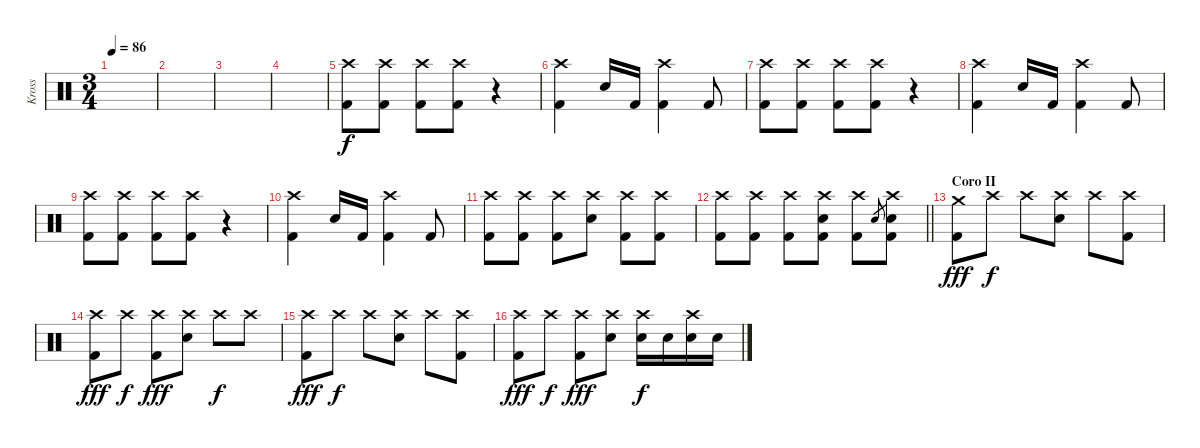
\track ("Kross" "Kross") {instrument percussion}
\staff {score}
\articulation defaults
\ts (3 4)
\tempo 86
\clef neutral
\ks c
|
|
|
|
("Crash high (hit)" "Kick (hit) 2").8 ("Crash high (hit)" "Kick (hit) 2").8 ("Crash high (hit)" "Kick (hit) 2").8 ("Crash high (hit)" "Kick (hit) 2").8 r.4 |
("Crash high (hit)" "Kick (hit) 2").4 "Electric Snare (hit)".16 "Kick (hit) 2".16 ("Crash high (hit)" "Kick (hit) 2").4 "Kick (hit) 2".8 |
("Crash high (hit)" "Kick (hit) 2").8 ("Crash high (hit)" "Kick (hit) 2").8 ("Crash high (hit)" "Kick (hit) 2").8 ("Crash high (hit)" "Kick (hit) 2").8 r.4 |
("Crash high (hit)" "Kick (hit) 2").4 "Electric Snare (hit)".16 "Kick (hit) 2".16 ("Crash high (hit)" "Kick (hit) 2").4 "Kick (hit) 2".8 |
("Crash high (hit)" "Kick (hit) 2").8 ("Crash high (hit)" "Kick (hit) 2").8 ("Crash high (hit)" "Kick (hit) 2").8 ("Crash high (hit)" "Kick (hit) 2").8 r.4 |
("Crash high (hit)" "Kick (hit) 2").4 "Electric Snare (hit)".16 "Kick (hit) 2".16 ("Crash high (hit)" "Kick (hit) 2").4 "Kick (hit) 2".8 |
("Crash high (hit)" "Kick (hit) 2").8 ("Crash high (hit)" "Kick (hit) 2").8 ("Crash high (hit)" "Kick (hit) 2").8 ("Crash high (hit)" "Electric Snare (hit)").8 ("Crash high (hit)" "Kick (hit) 2").8 ("Crash high (hit)" "Kick (hit) 2").8 |
\barLineRight lightlight
("Crash high (hit)" "Kick (hit) 2").8 ("Crash high (hit)" "Kick (hit) 2").8 ("Crash high (hit)" "Kick (hit) 2").8 ("Crash high (hit)" "Electric Snare (hit)" "Kick (hit) 2").8 ("Crash high (hit)" "Kick (hit) 2").8 "Electric Snare (hit)".8{gr} ("Crash high (hit)" "Electric Snare (hit)" "Kick (hit) 2").8 |
\section ("" "Coro II")
("Crash medium (hit)" "Kick (hit) 2").8{dy fff} "Crash high (hit)".8{dy f} "Crash high (hit)".8 ("Crash high (hit)" "Electric Snare (hit)").8 "Crash high (hit)".8 ("Crash high (hit)" "Kick (hit) 2").8 |
("Crash high (hit)" "Kick (hit) 2").8{dy fff} "Crash high (hit)".8{dy f} ("Crash high (hit)" "Kick (hit) 2").8{dy fff} ("Crash high (hit)" "Electric Snare (hit)").8 "Crash high (hit)".8{dy f} "Crash high (hit)".8 |
("Crash high (hit)" "Kick (hit) 2").8{dy fff} "Crash high (hit)".8{dy f} "Crash high (hit)".8 ("Crash high (hit)" "Electric Snare (hit)").8 "Crash high (hit)".8 ("Crash high (hit)" "Kick (hit) 2").8 |
("Crash high (hit)" "Kick (hit) 2").8{dy fff} "Crash high (hit)".8{dy f} ("Crash high (hit)" "Kick (hit) 2").8{dy fff} ("Crash high (hit)" "Electric Snare (hit)").8 ("Crash high (hit)" "Electric Snare (hit)").16{dy f} "Electric Snare (hit)".16 ("Crash high (hit)" "Electric Snare (hit)").16 "Electric Snare (hit)".16
